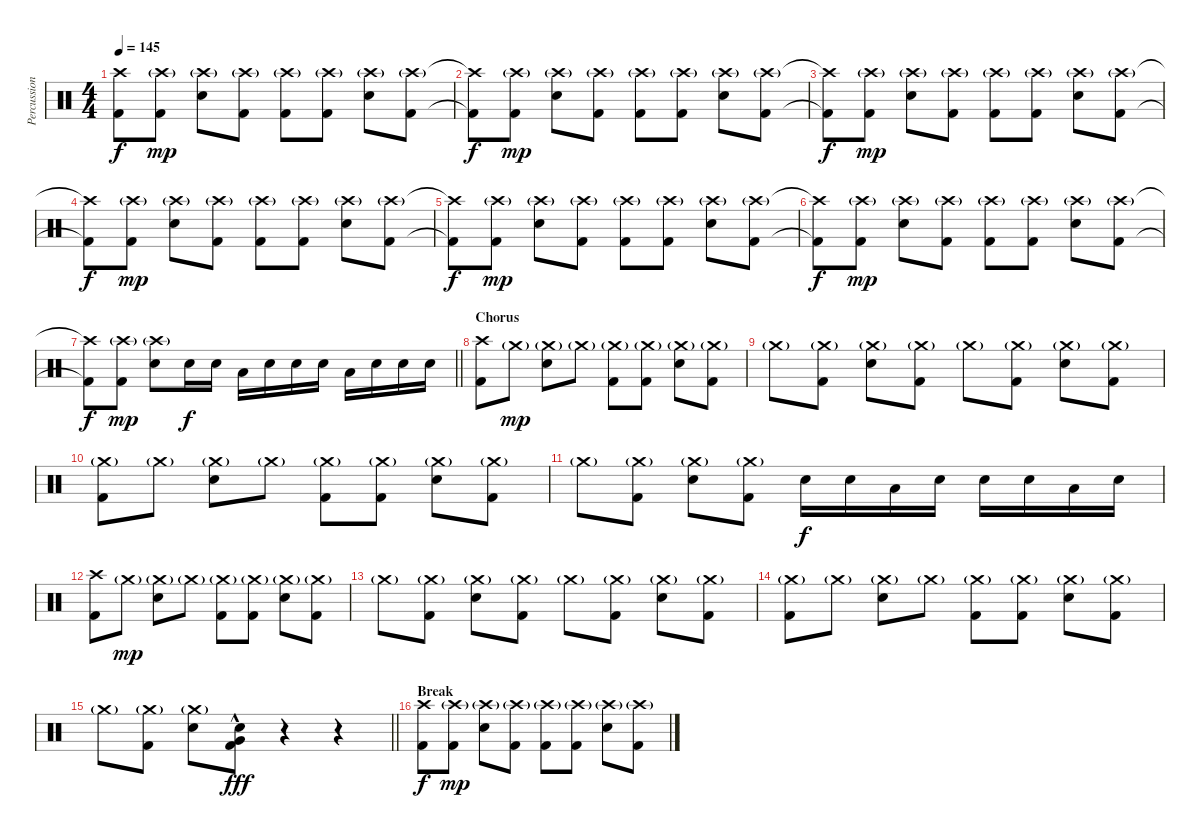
\track ("Percussion" "Percussion") {instrument percussion}
\staff {score}
\articulation defaults
\ts (4 4)
\tempo 145
\clef neutral
\ks c
("Crash high (hit)"{t} "Kick (hit) 2"{t}).8{dy f} ("Crash high (hit)"{g} "Kick (hit) 2").8{dy mp} ("Crash high (hit)"{g} "Snare (hit) 2").8 ("Crash high (hit)"{g} "Kick (hit) 2").8 ("Crash high (hit)"{g} "Kick (hit) 2").8 ("Crash high (hit)"{g} "Kick (hit) 2").8 ("Crash high (hit)"{g} "Snare (hit) 2").8 ("Crash high (hit)"{g} "Kick (hit) 2").8 |
("Crash high (hit)"{t} "Kick (hit) 2"{t}).8{dy f} ("Crash high (hit)"{g} "Kick (hit) 2").8{dy mp} ("Crash high (hit)"{g} "Snare (hit) 2").8 ("Crash high (hit)"{g} "Kick (hit) 2").8 ("Crash high (hit)"{g} "Kick (hit) 2").8 ("Crash high (hit)"{g} "Kick (hit) 2").8 ("Crash high (hit)"{g} "Snare (hit) 2").8 ("Crash high (hit)"{g} "Kick (hit) 2").8 |
("Crash high (hit)"{t} "Kick (hit) 2"{t}).8{dy f} ("Crash high (hit)"{g} "Kick (hit) 2").8{dy mp} ("Crash high (hit)"{g} "Snare (hit) 2").8 ("Crash high (hit)"{g} "Kick (hit) 2").8 ("Crash high (hit)"{g} "Kick (hit) 2").8 ("Crash high (hit)"{g} "Kick (hit) 2").8 ("Crash high (hit)"{g} "Snare (hit) 2").8 ("Crash high (hit)"{g} "Kick (hit) 2").8 |
("Crash high (hit)"{t} "Kick (hit) 2"{t}).8{dy f} ("Crash high (hit)"{g} "Kick (hit) 2").8{dy mp} ("Crash high (hit)"{g} "Snare (hit) 2").8 ("Crash high (hit)"{g} "Kick (hit) 2").8 ("Crash high (hit)"{g} "Kick (hit) 2").8 ("Crash high (hit)"{g} "Kick (hit) 2").8 ("Crash high (hit)"{g} "Snare (hit) 2").8 ("Crash high (hit)"{g} "Kick (hit) 2").8 |
("Crash high (hit)"{t} "Kick (hit) 2"{t}).8{dy f} ("Crash high (hit)"{g} "Kick (hit) 2").8{dy mp} ("Crash high (hit)"{g} "Snare (hit) 2").8 ("Crash high (hit)"{g} "Kick (hit) 2").8 ("Crash high (hit)"{g} "Kick (hit) 2").8 ("Crash high (hit)"{g} "Kick (hit) 2").8 ("Crash high (hit)"{g} "Snare (hit) 2").8 ("Crash high (hit)"{g} "Kick (hit) 2").8 |
("Crash high (hit)"{t} "Kick (hit) 2"{t}).8{dy f} ("Crash high (hit)"{g} "Kick (hit) 2").8{dy mp} ("Crash high (hit)"{g} "Snare (hit) 2").8 ("Crash high (hit)"{g} "Kick (hit) 2").8 ("Crash high (hit)"{g} "Kick (hit) 2").8 ("Crash high (hit)"{g} "Kick (hit) 2").8 ("Crash high (hit)"{g} "Snare (hit) 2").8 ("Crash high (hit)"{g} "Kick (hit) 2").8 |
\barLineRight lightlight
("Crash high (hit)"{t} "Kick (hit) 2"{t}).8{dy f} ("Crash high (hit)"{g} "Kick (hit) 2").8{dy mp} ("Crash high (hit)"{g} "Snare (hit) 2").8 "Snare (hit) 2".16{dy f} "Snare (hit) 2".16 "Low Tom (hit)".16 "Snare (hit) 2".16 "Snare (hit) 2".16 "Snare (hit) 2".16 "Low Tom (hit)".16 "Snare (hit) 2".16 "Snare (hit) 2".16 "Snare (hit) 2".16 |
\section ("" "Chorus")
("Crash high (hit)" "Kick (hit) 2").8 "Crash medium (hit)"{g}.8{dy mp} ("Crash medium (hit)"{g} "Snare (hit) 2").8 "Crash medium (hit)"{g}.8 ("Crash medium (hit)"{g} "Kick (hit) 2").8 ("Crash medium (hit)"{g} "Kick (hit) 2").8 ("Crash medium (hit)"{g} "Snare (hit) 2").8 ("Crash medium (hit)"{g} "Kick (hit) 2").8 |
"Crash medium (hit)"{g}.8 ("Crash medium (hit)"{g} "Kick (hit) 2").8 ("Crash medium (hit)"{g} "Snare (hit) 2").8 ("Crash medium (hit)"{g} "Kick (hit) 2").8 "Crash medium (hit)"{g}.8 ("Crash medium (hit)"{g} "Kick (hit) 2").8 ("Crash medium (hit)"{g} "Snare (hit) 2").8 ("Crash medium (hit)"{g} "Kick (hit) 2").8 |
("Crash medium (hit)"{g} "Kick (hit) 2").8 "Crash medium (hit)"{g}.8 ("Crash medium (hit)"{g} "Snare (hit) 2").8 "Crash medium (hit)"{g}.8 ("Crash medium (hit)"{g} "Kick (hit) 2").8 ("Crash medium (hit)"{g} "Kick (hit) 2").8 ("Crash medium (hit)"{g} "Snare (hit) 2").8 ("Crash medium (hit)"{g} "Kick (hit) 2").8 |
"Crash medium (hit)"{g}.8 ("Crash medium (hit)"{g} "Kick (hit) 2").8 ("Crash medium (hit)"{g} "Snare (hit) 2").8 ("Crash medium (hit)"{g} "Kick (hit) 2").8 "Snare (hit) 2".16{dy f} "Snare (hit) 2".16 "Low Tom (hit)".16 "Snare (hit) 2".16 "Snare (hit) 2".16 "Snare (hit) 2".16 "Low Tom (hit)".16 "Snare (hit) 2".16 |
("Crash high (hit)" "Kick (hit) 2").8 "Crash medium (hit)"{g}.8{dy mp} ("Crash medium (hit)"{g} "Snare (hit) 2").8 "Crash medium (hit)"{g}.8 ("Crash medium (hit)"{g} "Kick (hit) 2").8 ("Crash medium (hit)"{g} "Kick (hit) 2").8 ("Crash medium (hit)"{g} "Snare (hit) 2").8 ("Crash medium (hit)"{g} "Kick (hit) 2").8 |
"Crash medium (hit)"{g}.8 ("Crash medium (hit)"{g} "Kick (hit) 2").8 ("Crash medium (hit)"{g} "Snare (hit) 2").8 ("Crash medium (hit)"{g} "Kick (hit) 2").8 "Crash medium (hit)"{g}.8 ("Crash medium (hit)"{g} "Kick (hit) 2").8 ("Crash medium (hit)"{g} "Snare (hit) 2").8 ("Crash medium (hit)"{g} "Kick (hit) 2").8 |
("Crash medium (hit)"{g} "Kick (hit) 2").8 "Crash medium (hit)"{g}.8 ("Crash medium (hit)"{g} "Snare (hit) 2").8 "Crash medium (hit)"{g}.8 ("Crash medium (hit)"{g} "Kick (hit) 2").8 ("Crash medium (hit)"{g} "Kick (hit) 2").8 ("Crash medium (hit)"{g} "Snare (hit) 2").8 ("Crash medium (hit)"{g} "Kick (hit) 2").8 |
\barLineRight lightlight "Crash medium (hit)"{g}.8
("Crash medium (hit)"{g} "Kick (hit) 2").8 ("Crash medium (hit)"{g} "Snare (hit) 2").8 ("Snare (hit) 2"{hac} "Very Low Tom (hit)"{hac} "Kick (hit) 2"{hac}).8{dy fff} r.4 r.4 |
\section ("" "Break")
("Crash high (hit)" "Kick (hit) 2").8{dy f} ("Crash high (hit)"{g} "Kick (hit) 2").8{dy mp} ("Crash high (hit)"{g} "Snare (hit) 2").8 ("Crash high (hit)"{g} "Kick (hit) 2").8 ("Crash high (hit)"{g} "Kick (hit) 2").8 ("Crash high (hit)"{g} "Kick (hit) 2").8 ("Crash high (hit)"{g} "Snare (hit) 2").8 ("Crash high (hit)"{g} "Kick (hit) 2").8
